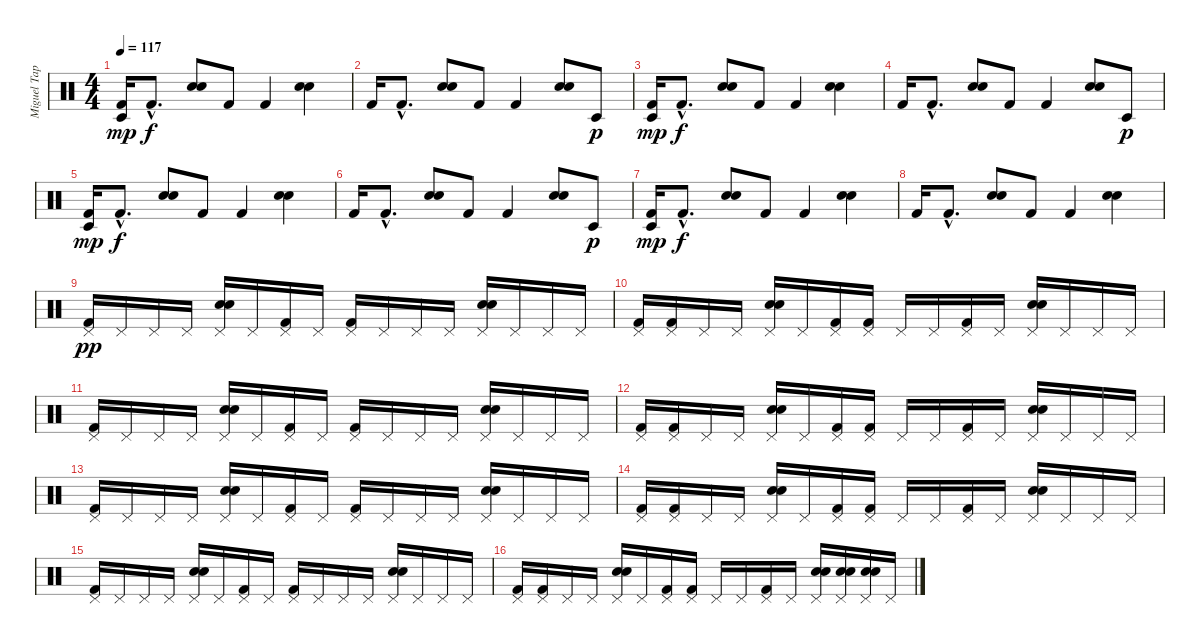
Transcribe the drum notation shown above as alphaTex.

\track ("Miguel Tapia" "Miguel Tap") {instrument percussion}
\staff {score}
\articulation defaults
\ts (4 4)
\tempo 117
\clef neutral
\ks c
("Kick (hit) 2" "Timbale low (hit)").16{dy mp} "Kick (hit) 2"{hac}.8{d dy f} ("Snare (hit) 2" "Electric Snare (hit)").8 "Kick (hit) 2".8 "Kick (hit) 2".4 ("Snare (hit) 2" "Electric Snare (hit)").4 |
"Kick (hit) 2".16 "Kick (hit) 2"{hac}.8{d} ("Snare (hit) 2" "Electric Snare (hit)").8 "Kick (hit) 2".8 "Kick (hit) 2".4 ("Snare (hit) 2" "Electric Snare (hit)").8 "Timbale low (hit)".8{dy p} |
("Kick (hit) 2" "Timbale low (hit)").16{dy mp} "Kick (hit) 2"{hac}.8{d dy f} ("Snare (hit) 2" "Electric Snare (hit)").8 "Kick (hit) 2".8 "Kick (hit) 2".4 ("Snare (hit) 2" "Electric Snare (hit)").4 |
"Kick (hit) 2".16 "Kick (hit) 2"{hac}.8{d} ("Snare (hit) 2" "Electric Snare (hit)").8 "Kick (hit) 2".8 "Kick (hit) 2".4 ("Snare (hit) 2" "Electric Snare (hit)").8 "Timbale low (hit)".8{dy p} |
("Kick (hit) 2" "Timbale low (hit)").16{dy mp} "Kick (hit) 2"{hac}.8{d dy f} ("Snare (hit) 2" "Electric Snare (hit)").8 "Kick (hit) 2".8 "Kick (hit) 2".4 ("Snare (hit) 2" "Electric Snare (hit)").4 |
"Kick (hit) 2".16 "Kick (hit) 2"{hac}.8{d} ("Snare (hit) 2" "Electric Snare (hit)").8 "Kick (hit) 2".8 "Kick (hit) 2".4 ("Snare (hit) 2" "Electric Snare (hit)").8 "Timbale low (hit)".8{dy p} |
("Kick (hit) 2" "Timbale low (hit)").16{dy mp} "Kick (hit) 2"{hac}.8{d dy f} ("Snare (hit) 2" "Electric Snare (hit)").8 "Kick (hit) 2".8 "Kick (hit) 2".4 ("Snare (hit) 2" "Electric Snare (hit)").4 |
"Kick (hit) 2".16 "Kick (hit) 2"{hac}.8{d} ("Snare (hit) 2" "Electric Snare (hit)").8 "Kick (hit) 2".8 "Kick (hit) 2".4 ("Snare (hit) 2" "Electric Snare (hit)").4 |
("Kick (hit) 2" "Pedal Hi-Hat (hit)").16{dy pp} "Pedal Hi-Hat (hit)".16 "Pedal Hi-Hat (hit)".16 "Pedal Hi-Hat (hit)".16 ("Snare (hit) 2" "Electric Snare (hit)" "Pedal Hi-Hat (hit)").16 "Pedal Hi-Hat (hit)".16 ("Kick (hit) 2" "Pedal Hi-Hat (hit)").16 "Pedal Hi-Hat (hit)".16 ("Kick (hit) 2" "Pedal Hi-Hat (hit)").16 "Pedal Hi-Hat (hit)".16 "Pedal Hi-Hat (hit)".16 "Pedal Hi-Hat (hit)".16 ("Snare (hit) 2" "Electric Snare (hit)" "Pedal Hi-Hat (hit)").16 "Pedal Hi-Hat (hit)".16 "Pedal Hi-Hat (hit)".16 "Pedal Hi-Hat (hit)".16 |
("Kick (hit) 2" "Pedal Hi-Hat (hit)").16 ("Kick (hit) 2" "Pedal Hi-Hat (hit)").16 "Pedal Hi-Hat (hit)".16 "Pedal Hi-Hat (hit)".16 ("Snare (hit) 2" "Electric Snare (hit)" "Pedal Hi-Hat (hit)").16 "Pedal Hi-Hat (hit)".16 ("Kick (hit) 2" "Pedal Hi-Hat (hit)").16 ("Kick (hit) 2" "Pedal Hi-Hat (hit)").16 "Pedal Hi-Hat (hit)".16 "Pedal Hi-Hat (hit)".16 ("Kick (hit) 2" "Pedal Hi-Hat (hit)").16 "Pedal Hi-Hat (hit)".16 ("Snare (hit) 2" "Electric Snare (hit)" "Pedal Hi-Hat (hit)").16 "Pedal Hi-Hat (hit)".16 "Pedal Hi-Hat (hit)".16 "Pedal Hi-Hat (hit)".16 |
("Kick (hit) 2" "Pedal Hi-Hat (hit)").16 "Pedal Hi-Hat (hit)".16 "Pedal Hi-Hat (hit)".16 "Pedal Hi-Hat (hit)".16 ("Snare (hit) 2" "Electric Snare (hit)" "Pedal Hi-Hat (hit)").16 "Pedal Hi-Hat (hit)".16 ("Kick (hit) 2" "Pedal Hi-Hat (hit)").16 "Pedal Hi-Hat (hit)".16 ("Kick (hit) 2" "Pedal Hi-Hat (hit)").16 "Pedal Hi-Hat (hit)".16 "Pedal Hi-Hat (hit)".16 "Pedal Hi-Hat (hit)".16 ("Snare (hit) 2" "Electric Snare (hit)" "Pedal Hi-Hat (hit)").16 "Pedal Hi-Hat (hit)".16 "Pedal Hi-Hat (hit)".16 "Pedal Hi-Hat (hit)".16 |
("Kick (hit) 2" "Pedal Hi-Hat (hit)").16 ("Kick (hit) 2" "Pedal Hi-Hat (hit)").16 "Pedal Hi-Hat (hit)".16 "Pedal Hi-Hat (hit)".16 ("Snare (hit) 2" "Electric Snare (hit)" "Pedal Hi-Hat (hit)").16 "Pedal Hi-Hat (hit)".16 ("Kick (hit) 2" "Pedal Hi-Hat (hit)").16 ("Kick (hit) 2" "Pedal Hi-Hat (hit)").16 "Pedal Hi-Hat (hit)".16 "Pedal Hi-Hat (hit)".16 ("Kick (hit) 2" "Pedal Hi-Hat (hit)").16 "Pedal Hi-Hat (hit)".16 ("Snare (hit) 2" "Electric Snare (hit)" "Pedal Hi-Hat (hit)").16 "Pedal Hi-Hat (hit)".16 "Pedal Hi-Hat (hit)".16 "Pedal Hi-Hat (hit)".16 |
("Kick (hit) 2" "Pedal Hi-Hat (hit)").16 "Pedal Hi-Hat (hit)".16 "Pedal Hi-Hat (hit)".16 "Pedal Hi-Hat (hit)".16 ("Snare (hit) 2" "Electric Snare (hit)" "Pedal Hi-Hat (hit)").16 "Pedal Hi-Hat (hit)".16 ("Kick (hit) 2" "Pedal Hi-Hat (hit)").16 "Pedal Hi-Hat (hit)".16 ("Kick (hit) 2" "Pedal Hi-Hat (hit)").16 "Pedal Hi-Hat (hit)".16 "Pedal Hi-Hat (hit)".16 "Pedal Hi-Hat (hit)".16 ("Snare (hit) 2" "Electric Snare (hit)" "Pedal Hi-Hat (hit)").16 "Pedal Hi-Hat (hit)".16 "Pedal Hi-Hat (hit)".16 "Pedal Hi-Hat (hit)".16 |
("Kick (hit) 2" "Pedal Hi-Hat (hit)").16 ("Kick (hit) 2" "Pedal Hi-Hat (hit)").16 "Pedal Hi-Hat (hit)".16 "Pedal Hi-Hat (hit)".16 ("Snare (hit) 2" "Electric Snare (hit)" "Pedal Hi-Hat (hit)").16 "Pedal Hi-Hat (hit)".16 ("Kick (hit) 2" "Pedal Hi-Hat (hit)").16 ("Kick (hit) 2" "Pedal Hi-Hat (hit)").16 "Pedal Hi-Hat (hit)".16 "Pedal Hi-Hat (hit)".16 ("Kick (hit) 2" "Pedal Hi-Hat (hit)").16 "Pedal Hi-Hat (hit)".16 ("Snare (hit) 2" "Electric Snare (hit)" "Pedal Hi-Hat (hit)").16 "Pedal Hi-Hat (hit)".16 "Pedal Hi-Hat (hit)".16 "Pedal Hi-Hat (hit)".16 |
("Kick (hit) 2" "Pedal Hi-Hat (hit)").16 "Pedal Hi-Hat (hit)".16 "Pedal Hi-Hat (hit)".16 "Pedal Hi-Hat (hit)".16 ("Snare (hit) 2" "Electric Snare (hit)" "Pedal Hi-Hat (hit)").16 "Pedal Hi-Hat (hit)".16 ("Kick (hit) 2" "Pedal Hi-Hat (hit)").16 "Pedal Hi-Hat (hit)".16 ("Kick (hit) 2" "Pedal Hi-Hat (hit)").16 "Pedal Hi-Hat (hit)".16 "Pedal Hi-Hat (hit)".16 "Pedal Hi-Hat (hit)".16 ("Snare (hit) 2" "Electric Snare (hit)" "Pedal Hi-Hat (hit)").16 "Pedal Hi-Hat (hit)".16 "Pedal Hi-Hat (hit)".16 "Pedal Hi-Hat (hit)".16 |
("Kick (hit) 2" "Pedal Hi-Hat (hit)").16 ("Kick (hit) 2" "Pedal Hi-Hat (hit)").16 "Pedal Hi-Hat (hit)".16 "Pedal Hi-Hat (hit)".16 ("Snare (hit) 2" "Electric Snare (hit)" "Pedal Hi-Hat (hit)").16 "Pedal Hi-Hat (hit)".16 ("Kick (hit) 2" "Pedal Hi-Hat (hit)").16 ("Kick (hit) 2" "Pedal Hi-Hat (hit)").16 "Pedal Hi-Hat (hit)".16 "Pedal Hi-Hat (hit)".16 ("Kick (hit) 2" "Pedal Hi-Hat (hit)").16 "Pedal Hi-Hat (hit)".16 ("Snare (hit) 2" "Electric Snare (hit)" "Pedal Hi-Hat (hit)").16 ("Electric Snare (hit)" "Snare (hit) 2" "Pedal Hi-Hat (hit)").16 ("Electric Snare (hit)" "Snare (hit) 2" "Pedal Hi-Hat (hit)").16 "Pedal Hi-Hat (hit)".16
